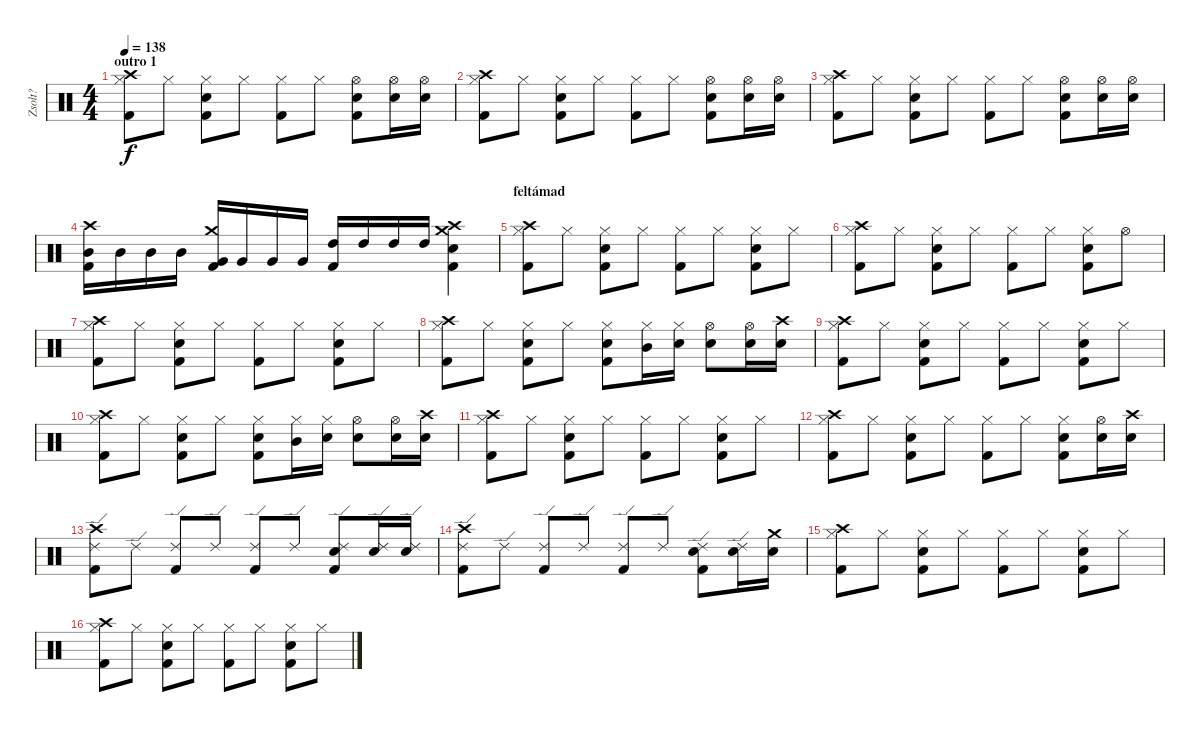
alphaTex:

\track ("Zsolt?" "Zsolt?") {instrument percussion}
\staff {score}
\articulation defaults
\ts (4 4)
\section ("" "outro 1")
\tempo 138
\clef neutral
\ks c
("Hi-Hat (closed)" "Crash high (hit)" "Kick (hit) 2").8{dy f} "Hi-Hat (closed)".8 ("Hi-Hat (closed)" "Snare (hit) 2" "Kick (hit) 2").8 "Hi-Hat (closed)".8 ("Hi-Hat (closed)" "Kick (hit) 2").8 "Hi-Hat (closed)".8 ("Hi-Hat (open)" "Snare (hit) 2" "Kick (hit) 2").8 ("Hi-Hat (open)" "Snare (hit) 2").16 ("Hi-Hat (open)" "Snare (hit) 2").16 |
("Hi-Hat (closed)" "Crash high (hit)" "Kick (hit) 2").8 "Hi-Hat (closed)".8 ("Hi-Hat (closed)" "Snare (hit) 2" "Kick (hit) 2").8 "Hi-Hat (closed)".8 ("Hi-Hat (closed)" "Kick (hit) 2").8 "Hi-Hat (closed)".8 ("Hi-Hat (open)" "Snare (hit) 2" "Kick (hit) 2").8 ("Hi-Hat (open)" "Snare (hit) 2").16 ("Hi-Hat (open)" "Snare (hit) 2").16 |
("Hi-Hat (closed)" "Crash high (hit)" "Kick (hit) 2").8 "Hi-Hat (closed)".8 ("Hi-Hat (closed)" "Snare (hit) 2" "Kick (hit) 2").8 "Hi-Hat (closed)".8 ("Hi-Hat (closed)" "Kick (hit) 2").8 "Hi-Hat (closed)".8 ("Hi-Hat (open)" "Snare (hit) 2" "Kick (hit) 2").8 ("Hi-Hat (open)" "Snare (hit) 2").16 ("Hi-Hat (open)" "Snare (hit) 2").16 |
("Crash high (hit)" "Mid Tom (hit)" "Kick (hit) 2").16 "Mid Tom (hit)".16 "Mid Tom (hit)".16 "Mid Tom (hit)".16 ("Crash medium (hit)" "Very Low Tom (hit)" "Kick (hit) 2").16 "Very Low Tom (hit)".16 "Very Low Tom (hit)".16 "Very Low Tom (hit)".16 ("High Tom (hit)" "Kick (hit) 2").16 "High Tom (hit)".16 "High Tom (hit)".16 "High Tom (hit)".16 ("Crash medium (hit)" "Crash high (hit)" "Snare (hit) 2" "Kick (hit) 2").4 |
\section ("" "feltámad")
("Hi-Hat (closed)" "Crash high (hit)" "Kick (hit) 2").8 "Hi-Hat (closed)".8 ("Hi-Hat (closed)" "Snare (hit) 2" "Kick (hit) 2").8 "Hi-Hat (closed)".8 ("Hi-Hat (closed)" "Kick (hit) 2").8 "Hi-Hat (closed)".8 ("Hi-Hat (closed)" "Snare (hit) 2" "Kick (hit) 2").8 "Hi-Hat (closed)".8 |
("Hi-Hat (closed)" "Crash high (hit)" "Kick (hit) 2").8 "Hi-Hat (closed)".8 ("Hi-Hat (closed)" "Snare (hit) 2" "Kick (hit) 2").8 "Hi-Hat (closed)".8 ("Hi-Hat (closed)" "Kick (hit) 2").8 "Hi-Hat (closed)".8 ("Hi-Hat (closed)" "Snare (hit) 2" "Kick (hit) 2").8 "Hi-Hat (open)".8 |
("Hi-Hat (closed)" "Crash high (hit)" "Kick (hit) 2").8 "Hi-Hat (closed)".8 ("Hi-Hat (closed)" "Snare (hit) 2" "Kick (hit) 2").8 "Hi-Hat (closed)".8 ("Hi-Hat (closed)" "Kick (hit) 2").8 "Hi-Hat (closed)".8 ("Hi-Hat (closed)" "Snare (hit) 2" "Kick (hit) 2").8 "Hi-Hat (closed)".8 |
("Hi-Hat (closed)" "Crash high (hit)" "Kick (hit) 2").8 "Hi-Hat (closed)".8 ("Hi-Hat (closed)" "Snare (hit) 2" "Kick (hit) 2").8 "Hi-Hat (closed)".8 ("Hi-Hat (closed)" "Snare (hit) 2" "Kick (hit) 2").8 ("Hi-Hat (closed)" "Mid Tom (hit)").16 ("Hi-Hat (closed)" "Snare (hit) 2").16 ("Hi-Hat (open)" "Snare (hit) 2").8 ("Hi-Hat (open)" "Snare (hit) 2").16 ("Crash high (hit)" "Snare (hit) 2").16 |
("Hi-Hat (closed)" "Crash high (hit)" "Kick (hit) 2").8 "Hi-Hat (closed)".8 ("Hi-Hat (closed)" "Snare (hit) 2" "Kick (hit) 2").8 "Hi-Hat (closed)".8 ("Hi-Hat (closed)" "Kick (hit) 2").8 "Hi-Hat (closed)".8 ("Hi-Hat (closed)" "Snare (hit) 2" "Kick (hit) 2").8 "Hi-Hat (closed)".8 |
("Hi-Hat (closed)" "Crash high (hit)" "Kick (hit) 2").8 "Hi-Hat (closed)".8 ("Hi-Hat (closed)" "Snare (hit) 2" "Kick (hit) 2").8 "Hi-Hat (closed)".8 ("Hi-Hat (closed)" "Snare (hit) 2" "Kick (hit) 2").8 ("Hi-Hat (closed)" "Mid Tom (hit)").16 ("Hi-Hat (closed)" "Snare (hit) 2").16 ("Hi-Hat (open)" "Snare (hit) 2").8 ("Hi-Hat (open)" "Snare (hit) 2").16 ("Crash high (hit)" "Snare (hit) 2").16 |
("Hi-Hat (closed)" "Crash high (hit)" "Kick (hit) 2").8 "Hi-Hat (closed)".8 ("Hi-Hat (closed)" "Snare (hit) 2" "Kick (hit) 2").8 "Hi-Hat (closed)".8 ("Hi-Hat (closed)" "Kick (hit) 2").8 "Hi-Hat (closed)".8 ("Hi-Hat (closed)" "Snare (hit) 2" "Kick (hit) 2").8 "Hi-Hat (closed)".8 |
("Hi-Hat (closed)" "Crash high (hit)" "Kick (hit) 2").8 "Hi-Hat (closed)".8 ("Hi-Hat (closed)" "Snare (hit) 2" "Kick (hit) 2").8 "Hi-Hat (closed)".8 ("Hi-Hat (closed)" "Kick (hit) 2").8 "Hi-Hat (closed)".8 ("Hi-Hat (closed)" "Snare (hit) 2" "Kick (hit) 2").8 ("Hi-Hat (open)" "Snare (hit) 2").16 ("Crash high (hit)" "Snare (hit) 2").16 |
("Ride (edge) 2" "Crash high (hit)" "Kick (hit) 2").8 "Ride (edge) 2".8 ("Ride (edge) 2" "Kick (hit) 2").8 "Ride (edge) 2".8 ("Ride (edge) 2" "Kick (hit) 2").8 "Ride (edge) 2".8 ("Ride (edge) 2" "Snare (hit) 2" "Kick (hit) 2").8 ("Ride (edge) 2" "Snare (hit) 2").16 ("Ride (edge) 2" "Snare (hit) 2").16 |
("Ride (edge) 2" "Crash high (hit)" "Kick (hit) 2").8 "Ride (edge) 2".8 ("Ride (edge) 2" "Kick (hit) 2").8 "Ride (edge) 2".8 ("Ride (edge) 2" "Kick (hit) 2").8 "Ride (edge) 2".8 ("Ride (edge) 2" "Snare (hit) 2" "Kick (hit) 2").8 ("Ride (edge) 2" "Snare (hit) 2").16 ("Crash medium (hit)" "Snare (hit) 2").16 |
("Hi-Hat (closed)" "Crash high (hit)" "Kick (hit) 2").8 "Hi-Hat (closed)".8 ("Hi-Hat (closed)" "Snare (hit) 2" "Kick (hit) 2").8 "Hi-Hat (closed)".8 ("Hi-Hat (closed)" "Kick (hit) 2").8 "Hi-Hat (closed)".8 ("Hi-Hat (closed)" "Snare (hit) 2" "Kick (hit) 2").8 "Hi-Hat (closed)".8 |
("Hi-Hat (closed)" "Crash high (hit)" "Kick (hit) 2").8 "Hi-Hat (closed)".8 ("Hi-Hat (closed)" "Snare (hit) 2" "Kick (hit) 2").8 "Hi-Hat (closed)".8 ("Hi-Hat (closed)" "Kick (hit) 2").8 "Hi-Hat (closed)".8 ("Hi-Hat (closed)" "Snare (hit) 2" "Kick (hit) 2").8 "Hi-Hat (closed)".8
